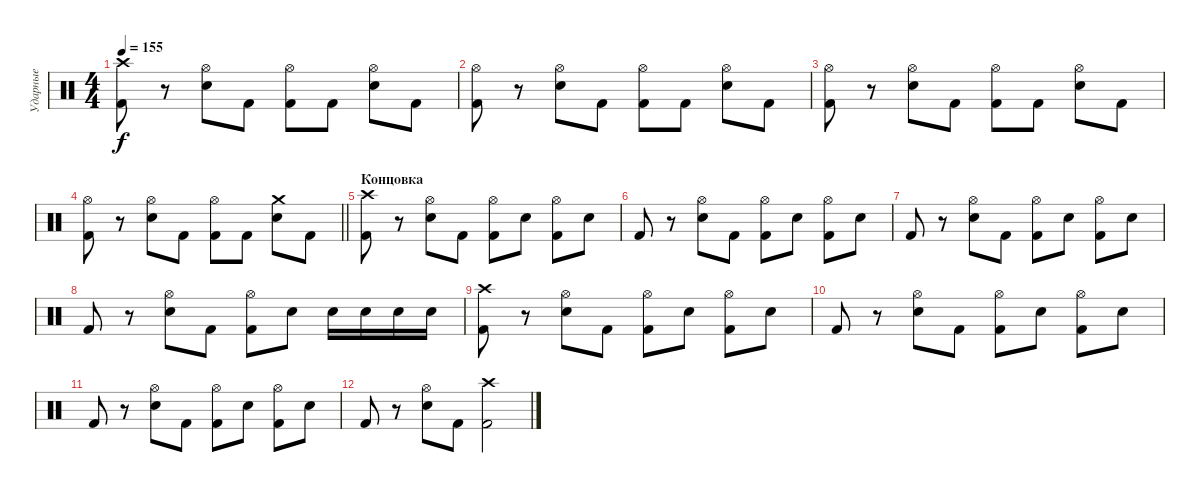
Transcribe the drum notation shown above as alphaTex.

\track ("Ударные" "Ударные") {instrument percussion}
\staff {score}
\articulation defaults
\ts (4 4)
\tempo 155
\clef neutral
\ks c
("Crash high (hit)" "Kick (hit) 2").8{dy f} r.8 ("Hi-Hat (open)" "Electric Snare (hit)").8 "Kick (hit) 2".8 ("Hi-Hat (open)" "Kick (hit) 2").8 "Kick (hit) 2".8 ("Hi-Hat (open)" "Electric Snare (hit)").8 "Kick (hit) 2".8 |
("Hi-Hat (open)" "Kick (hit) 2").8 r.8 ("Hi-Hat (open)" "Electric Snare (hit)").8 "Kick (hit) 2".8 ("Hi-Hat (open)" "Kick (hit) 2").8 "Kick (hit) 2".8 ("Hi-Hat (open)" "Electric Snare (hit)").8 "Kick (hit) 2".8 |
("Hi-Hat (open)" "Kick (hit) 2").8 r.8 ("Hi-Hat (open)" "Electric Snare (hit)").8 "Kick (hit) 2".8 ("Hi-Hat (open)" "Kick (hit) 2").8 "Kick (hit) 2".8 ("Hi-Hat (open)" "Electric Snare (hit)").8 "Kick (hit) 2".8 |
\barLineRight lightlight
("Hi-Hat (open)" "Kick (hit) 2").8 r.8 ("Hi-Hat (open)" "Electric Snare (hit)").8 "Kick (hit) 2".8 ("Hi-Hat (open)" "Kick (hit) 2").8 "Kick (hit) 2".8 ("Crash medium (hit)" "Electric Snare (hit)").8 "Kick (hit) 2".8 |
\section ("" "Концовка")
("Crash high (hit)" "Kick (hit) 2").8 r.8 ("Hi-Hat (open)" "Electric Snare (hit)").8 "Kick (hit) 2".8 ("Hi-Hat (open)" "Kick (hit) 2").8 "Electric Snare (hit)".8 ("Hi-Hat (open)" "Kick (hit) 2").8 "Electric Snare (hit)".8 |
"Kick (hit) 2".8 r.8 ("Hi-Hat (open)" "Electric Snare (hit)").8 "Kick (hit) 2".8 ("Hi-Hat (open)" "Kick (hit) 2").8 "Electric Snare (hit)".8 ("Hi-Hat (open)" "Kick (hit) 2").8 "Electric Snare (hit)".8 |
"Kick (hit) 2".8 r.8 ("Hi-Hat (open)" "Electric Snare (hit)").8 "Kick (hit) 2".8 ("Hi-Hat (open)" "Kick (hit) 2").8 "Electric Snare (hit)".8 ("Hi-Hat (open)" "Kick (hit) 2").8 "Electric Snare (hit)".8 |
"Kick (hit) 2".8 r.8 ("Hi-Hat (open)" "Electric Snare (hit)").8 "Kick (hit) 2".8 ("Hi-Hat (open)" "Kick (hit) 2").8 "Electric Snare (hit)".8 "Electric Snare (hit)".16 "Electric Snare (hit)".16 "Electric Snare (hit)".16 "Electric Snare (hit)".16 |
("Crash high (hit)" "Kick (hit) 2").8 r.8 ("Hi-Hat (open)" "Electric Snare (hit)").8 "Kick (hit) 2".8 ("Hi-Hat (open)" "Kick (hit) 2").8 "Electric Snare (hit)".8 ("Hi-Hat (open)" "Kick (hit) 2").8 "Electric Snare (hit)".8 |
"Kick (hit) 2".8 r.8 ("Hi-Hat (open)" "Electric Snare (hit)").8 "Kick (hit) 2".8 ("Hi-Hat (open)" "Kick (hit) 2").8 "Electric Snare (hit)".8 ("Hi-Hat (open)" "Kick (hit) 2").8 "Electric Snare (hit)".8 |
"Kick (hit) 2".8 r.8 ("Hi-Hat (open)" "Electric Snare (hit)").8 "Kick (hit) 2".8 ("Hi-Hat (open)" "Kick (hit) 2").8 "Electric Snare (hit)".8 ("Hi-Hat (open)" "Kick (hit) 2").8 "Electric Snare (hit)".8 |
"Kick (hit) 2".8 r.8 ("Hi-Hat (open)" "Electric Snare (hit)").8 "Kick (hit) 2".8 ("Crash high (hit)" "Kick (hit) 2").2
